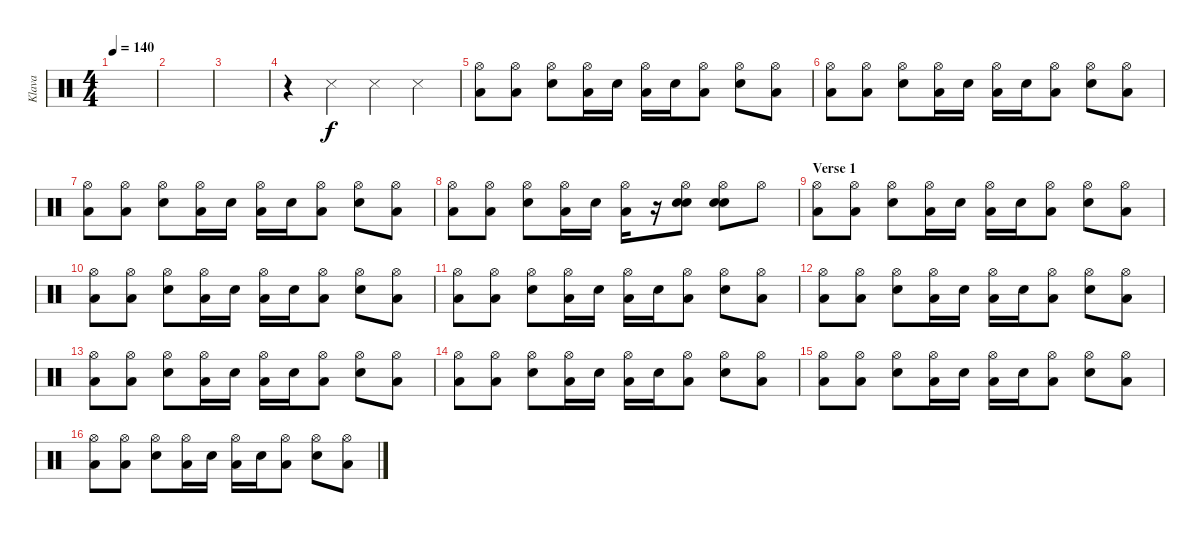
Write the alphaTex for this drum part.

\track ("Klava" "Klava") {instrument percussion}
\staff {score}
\articulation defaults
\ts (4 4)
\tempo 140
\clef neutral
\ks c
|
|
|
r.4 "Metronome (hit)".4 "Metronome (hit)".4 "Metronome (hit)".4 |
("Low Tom (hit)" "Hi-Hat (open)").8 ("Low Tom (hit)" "Hi-Hat (open)").8 ("Electric Snare (hit)" "Hi-Hat (open)").8 ("Low Tom (hit)" "Hi-Hat (open)").16 "Electric Snare (hit)".16 ("Low Tom (hit)" "Hi-Hat (open)").16 "Electric Snare (hit)".16 ("Low Tom (hit)" "Hi-Hat (open)").8 ("Electric Snare (hit)" "Hi-Hat (open)").8 ("Low Tom (hit)" "Hi-Hat (open)").8 |
("Low Tom (hit)" "Hi-Hat (open)").8 ("Low Tom (hit)" "Hi-Hat (open)").8 ("Electric Snare (hit)" "Hi-Hat (open)").8 ("Low Tom (hit)" "Hi-Hat (open)").16 "Electric Snare (hit)".16 ("Low Tom (hit)" "Hi-Hat (open)").16 "Electric Snare (hit)".16 ("Low Tom (hit)" "Hi-Hat (open)").8 ("Electric Snare (hit)" "Hi-Hat (open)").8 ("Low Tom (hit)" "Hi-Hat (open)").8 |
("Low Tom (hit)" "Hi-Hat (open)").8 ("Low Tom (hit)" "Hi-Hat (open)").8 ("Electric Snare (hit)" "Hi-Hat (open)").8 ("Low Tom (hit)" "Hi-Hat (open)").16 "Electric Snare (hit)".16 ("Low Tom (hit)" "Hi-Hat (open)").16 "Electric Snare (hit)".16 ("Low Tom (hit)" "Hi-Hat (open)").8 ("Electric Snare (hit)" "Hi-Hat (open)").8 ("Low Tom (hit)" "Hi-Hat (open)").8 |
("Low Tom (hit)" "Hi-Hat (open)").8 ("Low Tom (hit)" "Hi-Hat (open)").8 ("Electric Snare (hit)" "Hi-Hat (open)").8 ("Low Tom (hit)" "Hi-Hat (open)").16 "Electric Snare (hit)".16 ("Low Tom (hit)" "Hi-Hat (open)").16 r.16 ("Electric Snare (hit)" "Electric Snare (hit)" "Hi-Hat (open)").8 ("Electric Snare (hit)" "Electric Snare (hit)" "Hi-Hat (open)").8 "Hi-Hat (open)".8 |
\section ("" "Verse 1")
("Low Tom (hit)" "Hi-Hat (open)").8 ("Low Tom (hit)" "Hi-Hat (open)").8 ("Electric Snare (hit)" "Hi-Hat (open)").8 ("Low Tom (hit)" "Hi-Hat (open)").16 "Electric Snare (hit)".16 ("Low Tom (hit)" "Hi-Hat (open)").16 "Electric Snare (hit)".16 ("Low Tom (hit)" "Hi-Hat (open)").8 ("Electric Snare (hit)" "Hi-Hat (open)").8 ("Low Tom (hit)" "Hi-Hat (open)").8 |
("Low Tom (hit)" "Hi-Hat (open)").8 ("Low Tom (hit)" "Hi-Hat (open)").8 ("Electric Snare (hit)" "Hi-Hat (open)").8 ("Low Tom (hit)" "Hi-Hat (open)").16 "Electric Snare (hit)".16 ("Low Tom (hit)" "Hi-Hat (open)").16 "Electric Snare (hit)".16 ("Low Tom (hit)" "Hi-Hat (open)").8 ("Electric Snare (hit)" "Hi-Hat (open)").8 ("Low Tom (hit)" "Hi-Hat (open)").8 |
("Low Tom (hit)" "Hi-Hat (open)").8 ("Low Tom (hit)" "Hi-Hat (open)").8 ("Electric Snare (hit)" "Hi-Hat (open)").8 ("Low Tom (hit)" "Hi-Hat (open)").16 "Electric Snare (hit)".16 ("Low Tom (hit)" "Hi-Hat (open)").16 "Electric Snare (hit)".16 ("Low Tom (hit)" "Hi-Hat (open)").8 ("Electric Snare (hit)" "Hi-Hat (open)").8 ("Low Tom (hit)" "Hi-Hat (open)").8 |
("Low Tom (hit)" "Hi-Hat (open)").8 ("Low Tom (hit)" "Hi-Hat (open)").8 ("Electric Snare (hit)" "Hi-Hat (open)").8 ("Low Tom (hit)" "Hi-Hat (open)").16 "Electric Snare (hit)".16 ("Low Tom (hit)" "Hi-Hat (open)").16 "Electric Snare (hit)".16 ("Low Tom (hit)" "Hi-Hat (open)").8 ("Electric Snare (hit)" "Hi-Hat (open)").8 ("Low Tom (hit)" "Hi-Hat (open)").8 |
("Low Tom (hit)" "Hi-Hat (open)").8 ("Low Tom (hit)" "Hi-Hat (open)").8 ("Electric Snare (hit)" "Hi-Hat (open)").8 ("Low Tom (hit)" "Hi-Hat (open)").16 "Electric Snare (hit)".16 ("Low Tom (hit)" "Hi-Hat (open)").16 "Electric Snare (hit)".16 ("Low Tom (hit)" "Hi-Hat (open)").8 ("Electric Snare (hit)" "Hi-Hat (open)").8 ("Low Tom (hit)" "Hi-Hat (open)").8 |
("Low Tom (hit)" "Hi-Hat (open)").8 ("Low Tom (hit)" "Hi-Hat (open)").8 ("Electric Snare (hit)" "Hi-Hat (open)").8 ("Low Tom (hit)" "Hi-Hat (open)").16 "Electric Snare (hit)".16 ("Low Tom (hit)" "Hi-Hat (open)").16 "Electric Snare (hit)".16 ("Low Tom (hit)" "Hi-Hat (open)").8 ("Electric Snare (hit)" "Hi-Hat (open)").8 ("Low Tom (hit)" "Hi-Hat (open)").8 |
("Low Tom (hit)" "Hi-Hat (open)").8 ("Low Tom (hit)" "Hi-Hat (open)").8 ("Electric Snare (hit)" "Hi-Hat (open)").8 ("Low Tom (hit)" "Hi-Hat (open)").16 "Electric Snare (hit)".16 ("Low Tom (hit)" "Hi-Hat (open)").16 "Electric Snare (hit)".16 ("Low Tom (hit)" "Hi-Hat (open)").8 ("Electric Snare (hit)" "Hi-Hat (open)").8 ("Low Tom (hit)" "Hi-Hat (open)").8 |
("Low Tom (hit)" "Hi-Hat (open)").8 ("Low Tom (hit)" "Hi-Hat (open)").8 ("Electric Snare (hit)" "Hi-Hat (open)").8 ("Low Tom (hit)" "Hi-Hat (open)").16 "Electric Snare (hit)".16 ("Low Tom (hit)" "Hi-Hat (open)").16 "Electric Snare (hit)".16 ("Low Tom (hit)" "Hi-Hat (open)").8 ("Electric Snare (hit)" "Hi-Hat (open)").8 ("Low Tom (hit)" "Hi-Hat (open)").8
